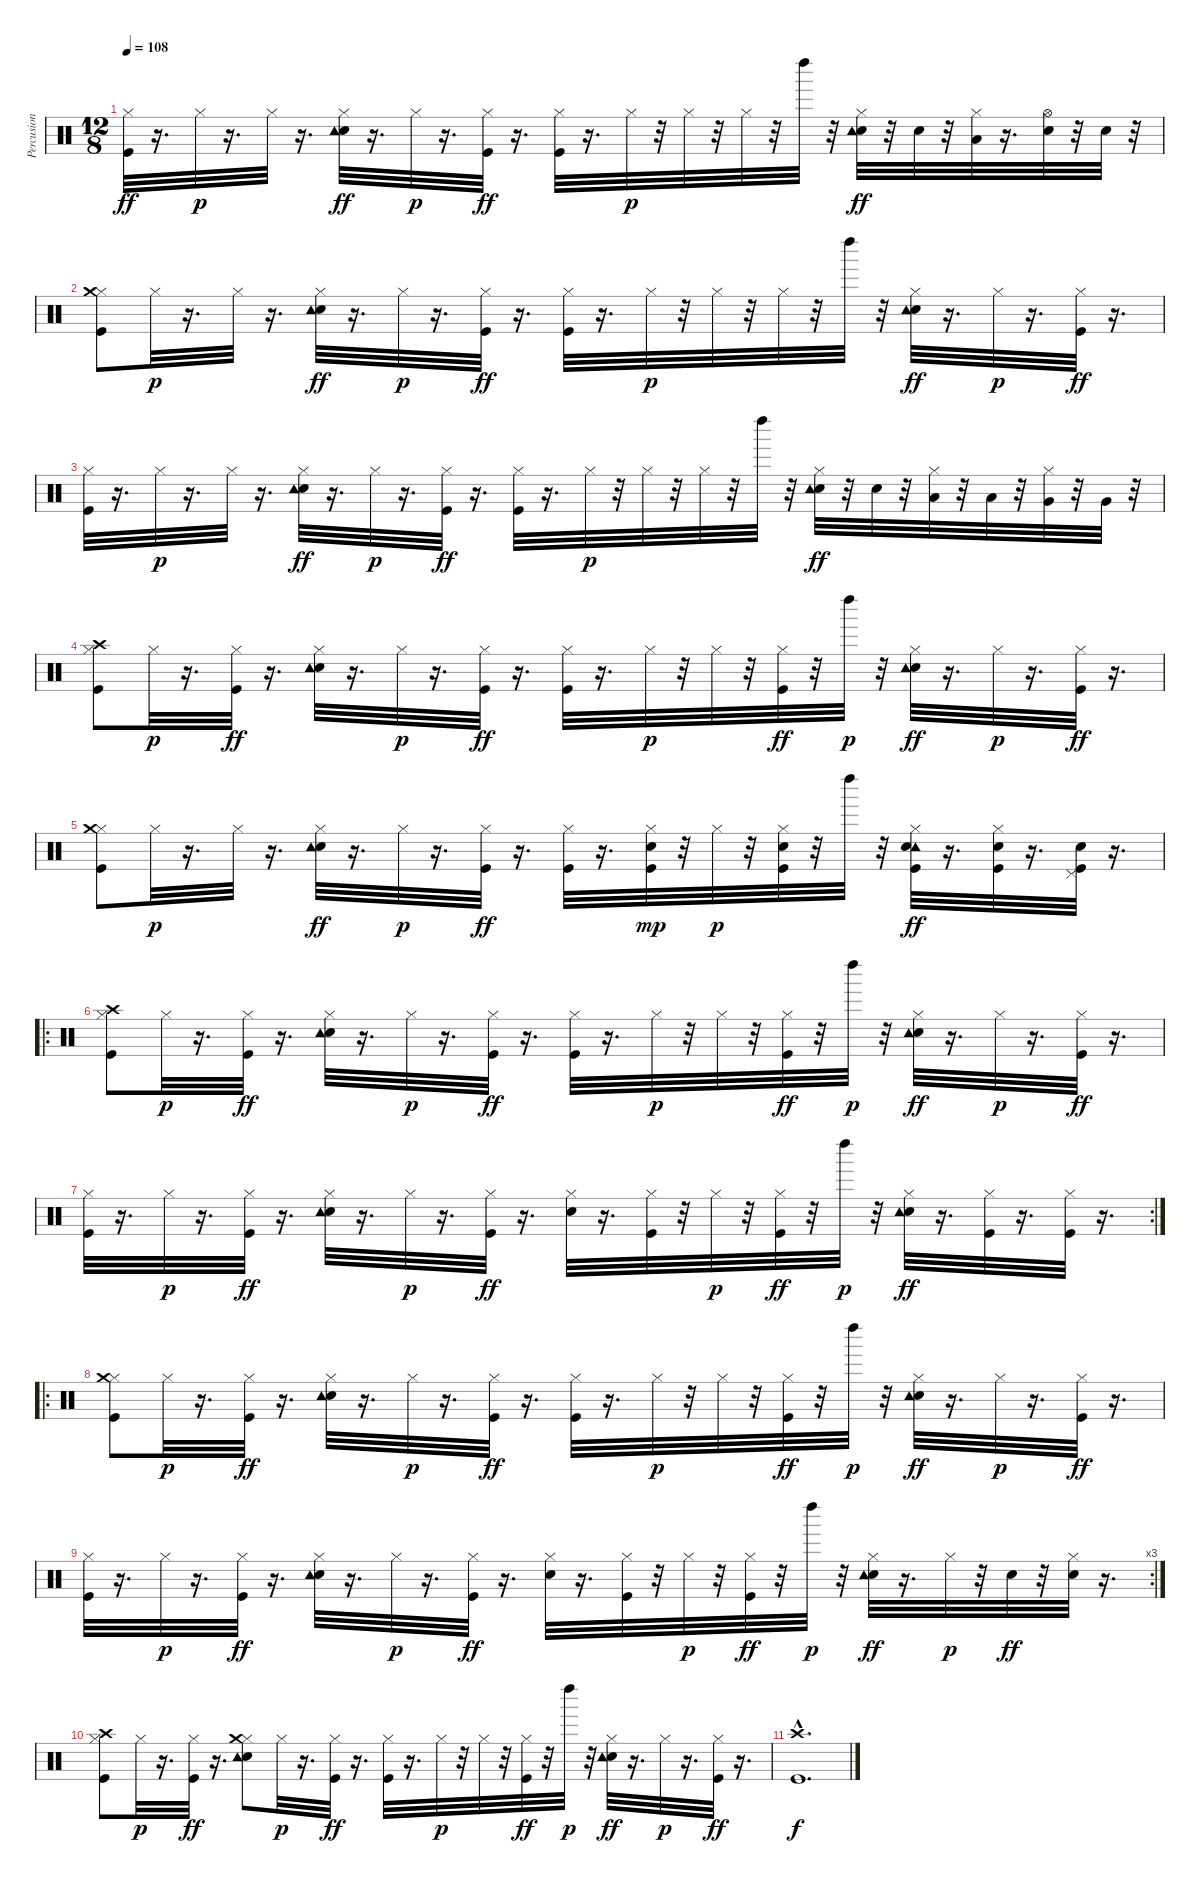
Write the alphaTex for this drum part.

\track ("Percusion (Matt)" "Percusion ") {instrument percussion}
\staff {score}
\articulation defaults
\ts (12 8)
\tempo 108
\clef neutral
\ks c
("Hi-Hat (closed)" "Kick (hit)").32{dy ff} r.16{d} "Hi-Hat (closed)".32{dy p} r.16{d} "Hi-Hat (closed)".32 r.16{d} ("Hi-Hat (closed)" "Electric Snare (hit)" "Tambourine (hit)").32{dy ff} r.16{d} "Hi-Hat (closed)".32{dy p} r.16{d} ("Hi-Hat (closed)" "Kick (hit)").32{dy ff} r.16{d} ("Hi-Hat (closed)" "Kick (hit)").32 r.16{d} "Hi-Hat (closed)".32{dy p} r.32 "Hi-Hat (closed)".32 r.32 "Hi-Hat (closed)".32 r.32 "Left Maraca (hit)".32 r.32 ("Hi-Hat (closed)" "Electric Snare (hit)" "Tambourine (hit)").32{dy ff} r.32 "Electric Snare (hit)".32 r.32 ("Hi-Hat (closed)" "Low Tom (hit)").32 r.16{d} ("Hi-Hat (open)" "Electric Snare (hit)").32 r.32 "Electric Snare (hit)".32 r.32 |
("Hi-Hat (closed)" "Kick (hit)" "Crash medium (hit)").8 "Hi-Hat (closed)".32{dy p} r.16{d} "Hi-Hat (closed)".32 r.16{d} ("Hi-Hat (closed)" "Electric Snare (hit)" "Tambourine (hit)").32{dy ff} r.16{d} "Hi-Hat (closed)".32{dy p} r.16{d} ("Hi-Hat (closed)" "Kick (hit)").32{dy ff} r.16{d} ("Hi-Hat (closed)" "Kick (hit)").32 r.16{d} "Hi-Hat (closed)".32{dy p} r.32 "Hi-Hat (closed)".32 r.32 "Hi-Hat (closed)".32 r.32 "Left Maraca (hit)".32 r.32 ("Hi-Hat (closed)" "Electric Snare (hit)" "Tambourine (hit)").32{dy ff} r.16{d} "Hi-Hat (closed)".32{dy p} r.16{d} ("Hi-Hat (closed)" "Kick (hit)").32{dy ff} r.16{d} |
("Hi-Hat (closed)" "Kick (hit)").32 r.16{d} "Hi-Hat (closed)".32{dy p} r.16{d} "Hi-Hat (closed)".32 r.16{d} ("Hi-Hat (closed)" "Electric Snare (hit)" "Tambourine (hit)").32{dy ff} r.16{d} "Hi-Hat (closed)".32{dy p} r.16{d} ("Hi-Hat (closed)" "Kick (hit)").32{dy ff} r.16{d} ("Hi-Hat (closed)" "Kick (hit)").32 r.16{d} "Hi-Hat (closed)".32{dy p} r.32 "Hi-Hat (closed)".32 r.32 "Hi-Hat (closed)".32 r.32 "Left Maraca (hit)".32 r.32 ("Hi-Hat (closed)" "Electric Snare (hit)" "Tambourine (hit)").32{dy ff} r.32 "Electric Snare (hit)".32 r.32 ("Hi-Hat (closed)" "Low Tom (hit)").32 r.32 "Low Tom (hit)".32 r.32 ("Hi-Hat (closed)" "Very Low Tom (hit)").32 r.32 "Very Low Tom (hit)".32 r.32 |
("Hi-Hat (closed)" "Kick (hit)" "Crash high (hit)").8 "Hi-Hat (closed)".32{dy p} r.16{d} ("Hi-Hat (closed)" "Kick (hit)").32{dy ff} r.16{d} ("Hi-Hat (closed)" "Electric Snare (hit)" "Tambourine (hit)").32 r.16{d} "Hi-Hat (closed)".32{dy p} r.16{d} ("Hi-Hat (closed)" "Kick (hit)").32{dy ff} r.16{d} ("Hi-Hat (closed)" "Kick (hit)").32 r.16{d} "Hi-Hat (closed)".32{dy p} r.32 "Hi-Hat (closed)".32 r.32 ("Hi-Hat (closed)" "Kick (hit)").32{dy ff} r.32 "Left Maraca (hit)".32{dy p} r.32 ("Hi-Hat (closed)" "Electric Snare (hit)" "Tambourine (hit)").32{dy ff} r.16{d} "Hi-Hat (closed)".32{dy p} r.16{d} ("Hi-Hat (closed)" "Kick (hit)").32{dy ff} r.16{d} |
("Hi-Hat (closed)" "Kick (hit)" "Crash medium (hit)").8 "Hi-Hat (closed)".32{dy p} r.16{d} "Hi-Hat (closed)".32 r.16{d} ("Hi-Hat (closed)" "Electric Snare (hit)" "Tambourine (hit)").32{dy ff} r.16{d} "Hi-Hat (closed)".32{dy p} r.16{d} ("Hi-Hat (closed)" "Kick (hit)").32{dy ff} r.16{d} ("Hi-Hat (closed)" "Kick (hit)").32 r.16{d} ("Hi-Hat (closed)" "Electric Snare (hit)" "Kick (hit)").32{dy mp} r.32 "Hi-Hat (closed)".32{dy p} r.32 ("Hi-Hat (closed)" "Electric Snare (hit)" "Kick (hit)").32 r.32 "Left Maraca (hit)".32 r.32 ("Hi-Hat (closed)" "Tambourine (hit)" "Snare (hit) 2" "Kick (hit)").32{dy ff} r.16{d} ("Hi-Hat (closed)" "Electric Snare (hit)" "Kick (hit)").32 r.16{d} ("Pedal Hi-Hat (hit)" "Electric Snare (hit)" "Kick (hit)").32 r.16{d} |
\ro
("Hi-Hat (closed)" "Kick (hit)" "Crash high (hit)").8 "Hi-Hat (closed)".32{dy p} r.16{d} ("Hi-Hat (closed)" "Kick (hit)").32{dy ff} r.16{d} ("Hi-Hat (closed)" "Electric Snare (hit)" "Tambourine (hit)").32 r.16{d} "Hi-Hat (closed)".32{dy p} r.16{d} ("Hi-Hat (closed)" "Kick (hit)").32{dy ff} r.16{d} ("Hi-Hat (closed)" "Kick (hit)").32 r.16{d} "Hi-Hat (closed)".32{dy p} r.32 "Hi-Hat (closed)".32 r.32 ("Hi-Hat (closed)" "Kick (hit)").32{dy ff} r.32 "Left Maraca (hit)".32{dy p} r.32 ("Hi-Hat (closed)" "Electric Snare (hit)" "Tambourine (hit)").32{dy ff} r.16{d} "Hi-Hat (closed)".32{dy p} r.16{d} ("Hi-Hat (closed)" "Kick (hit)").32{dy ff} r.16{d} |
\rc 2
("Hi-Hat (closed)" "Kick (hit)").32 r.16{d} "Hi-Hat (closed)".32{dy p} r.16{d} ("Hi-Hat (closed)" "Kick (hit)").32{dy ff} r.16{d} ("Hi-Hat (closed)" "Electric Snare (hit)" "Tambourine (hit)").32 r.16{d} "Hi-Hat (closed)".32{dy p} r.16{d} ("Hi-Hat (closed)" "Kick (hit)").32{dy ff} r.16{d} ("Hi-Hat (closed)" "Electric Snare (hit)").32 r.16{d} ("Hi-Hat (closed)" "Kick (hit)").32 r.32 "Hi-Hat (closed)".32{dy p} r.32 ("Hi-Hat (closed)" "Kick (hit)").32{dy ff} r.32 "Left Maraca (hit)".32{dy p} r.32 ("Hi-Hat (closed)" "Electric Snare (hit)" "Tambourine (hit)").32{dy ff} r.16{d} ("Hi-Hat (closed)" "Kick (hit)").32 r.16{d} ("Hi-Hat (closed)" "Kick (hit)").32 r.16{d} |
\ro
("Hi-Hat (closed)" "Kick (hit)" "Crash medium (hit)").8 "Hi-Hat (closed)".32{dy p} r.16{d} ("Hi-Hat (closed)" "Kick (hit)").32{dy ff} r.16{d} ("Hi-Hat (closed)" "Electric Snare (hit)" "Tambourine (hit)").32 r.16{d} "Hi-Hat (closed)".32{dy p} r.16{d} ("Hi-Hat (closed)" "Kick (hit)").32{dy ff} r.16{d} ("Hi-Hat (closed)" "Kick (hit)").32 r.16{d} "Hi-Hat (closed)".32{dy p} r.32 "Hi-Hat (closed)".32 r.32 ("Hi-Hat (closed)" "Kick (hit)").32{dy ff} r.32 "Left Maraca (hit)".32{dy p} r.32 ("Hi-Hat (closed)" "Electric Snare (hit)" "Tambourine (hit)").32{dy ff} r.16{d} "Hi-Hat (closed)".32{dy p} r.16{d} ("Hi-Hat (closed)" "Kick (hit)").32{dy ff} r.16{d} |
\rc 3
("Hi-Hat (closed)" "Kick (hit)").32 r.16{d} "Hi-Hat (closed)".32{dy p} r.16{d} ("Hi-Hat (closed)" "Kick (hit)").32{dy ff} r.16{d} ("Hi-Hat (closed)" "Electric Snare (hit)" "Tambourine (hit)").32 r.16{d} "Hi-Hat (closed)".32{dy p} r.16{d} ("Hi-Hat (closed)" "Kick (hit)").32{dy ff} r.16{d} ("Hi-Hat (closed)" "Electric Snare (hit)").32 r.16{d} ("Hi-Hat (closed)" "Kick (hit)").32 r.32 "Hi-Hat (closed)".32{dy p} r.32 ("Hi-Hat (closed)" "Kick (hit)").32{dy ff} r.32 "Left Maraca (hit)".32{dy p} r.32 ("Hi-Hat (closed)" "Electric Snare (hit)" "Tambourine (hit)").32{dy ff} r.16{d} "Hi-Hat (closed)".32{dy p} r.32 "Electric Snare (hit)".32{dy ff} r.32 ("Hi-Hat (closed)" "Snare (hit) 2").32 r.16{d} |
("Hi-Hat (closed)" "Kick (hit)" "Crash high (hit)").8 "Hi-Hat (closed)".32{dy p} r.16{d} ("Hi-Hat (closed)" "Kick (hit)").32{dy ff} r.16{d} ("Hi-Hat (closed)" "Electric Snare (hit)" "Tambourine (hit)" "Crash medium (hit)").8 "Hi-Hat (closed)".32{dy p} r.16{d} ("Hi-Hat (closed)" "Kick (hit)").32{dy ff} r.16{d} ("Hi-Hat (closed)" "Kick (hit)").32 r.16{d} "Hi-Hat (closed)".32{dy p} r.32 "Hi-Hat (closed)".32 r.32 ("Hi-Hat (closed)" "Kick (hit)").32{dy ff} r.32 "Left Maraca (hit)".32{dy p} r.32 ("Hi-Hat (closed)" "Electric Snare (hit)" "Tambourine (hit)").32{dy ff} r.16{d} "Hi-Hat (closed)".32{dy p} r.16{d} ("Hi-Hat (closed)" "Kick (hit)").32{dy ff} r.16{d} |
("Kick (hit)"{hac} "Crash high (hit)"{hac}).1{d dy f}
